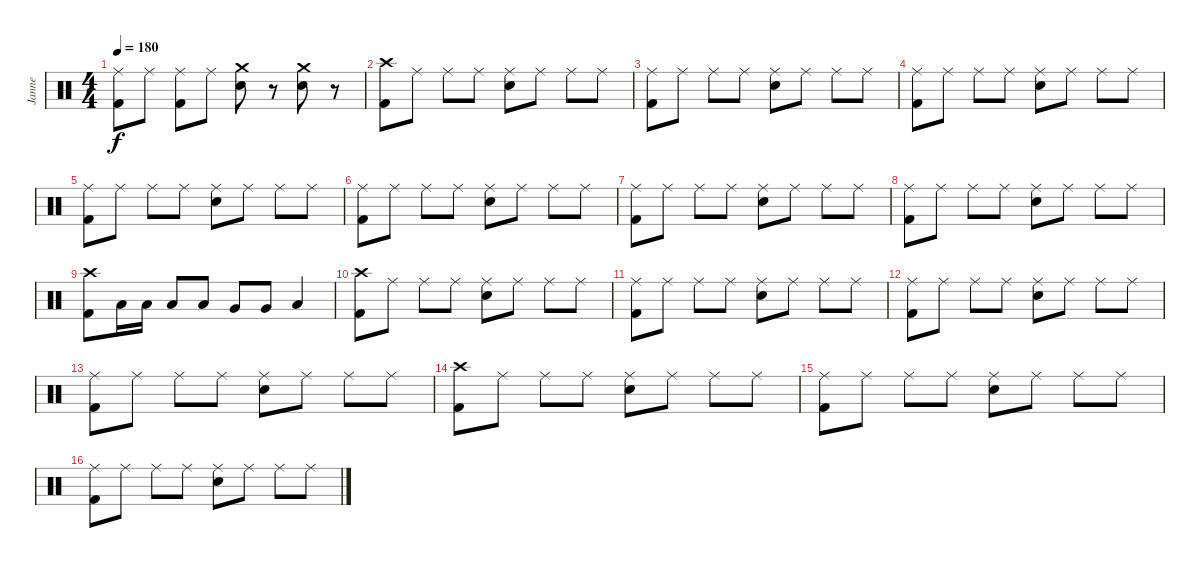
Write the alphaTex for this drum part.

\track ("Janne" "Janne") {instrument percussion}
\staff {score}
\articulation defaults
\ts (4 4)
\tempo 180
\clef neutral
\ks c
("Ride (middle)" "Kick (hit) 2").8{dy f} "Ride (middle)".8 ("Ride (middle)" "Kick (hit) 2").8 "Ride (middle)".8 ("Crash medium (hit)" "Electric Snare (hit)").8 r.8 ("Crash medium (hit)" "Electric Snare (hit)").8 r.8 |
("Crash high (hit)" "Kick (hit) 2").8 "Ride (middle)".8 "Ride (middle)".8 "Ride (middle)".8 ("Ride (middle)" "Electric Snare (hit)").8 "Ride (middle)".8 "Ride (middle)".8 "Ride (middle)".8 |
("Ride (middle)" "Kick (hit) 2").8 "Ride (middle)".8 "Ride (middle)".8 "Ride (middle)".8 ("Ride (middle)" "Electric Snare (hit)").8 "Ride (middle)".8 "Ride (middle)".8 "Ride (middle)".8 |
("Ride (middle)" "Kick (hit) 2").8 "Ride (middle)".8 "Ride (middle)".8 "Ride (middle)".8 ("Ride (middle)" "Electric Snare (hit)").8 "Ride (middle)".8 "Ride (middle)".8 "Ride (middle)".8 |
("Ride (middle)" "Kick (hit) 2").8 "Ride (middle)".8 "Ride (middle)".8 "Ride (middle)".8 ("Ride (middle)" "Electric Snare (hit)").8 "Ride (middle)".8 "Ride (middle)".8 "Ride (middle)".8 |
("Ride (middle)" "Kick (hit) 2").8 "Ride (middle)".8 "Ride (middle)".8 "Ride (middle)".8 ("Ride (middle)" "Electric Snare (hit)").8 "Ride (middle)".8 "Ride (middle)".8 "Ride (middle)".8 |
("Ride (middle)" "Kick (hit) 2").8 "Ride (middle)".8 "Ride (middle)".8 "Ride (middle)".8 ("Ride (middle)" "Electric Snare (hit)").8 "Ride (middle)".8 "Ride (middle)".8 "Ride (middle)".8 |
("Ride (middle)" "Kick (hit) 2").8 "Ride (middle)".8 "Ride (middle)".8 "Ride (middle)".8 ("Ride (middle)" "Electric Snare (hit)").8 "Ride (middle)".8 "Ride (middle)".8 "Ride (middle)".8 |
("Crash high (hit)" "Kick (hit) 2").8 "Low Tom (hit)".16 "Low Tom (hit)".16 "Low Tom (hit)".8 "Low Tom (hit)".8 "Very Low Tom (hit)".8 "Very Low Tom (hit)".8 "Low Floor Tom (hit)".4 |
("Crash high (hit)" "Kick (hit) 2").8 "Ride (middle)".8 "Ride (middle)".8 "Ride (middle)".8 ("Ride (middle)" "Electric Snare (hit)").8 "Ride (middle)".8 "Ride (middle)".8 "Ride (middle)".8 |
("Ride (middle)" "Kick (hit) 2").8 "Ride (middle)".8 "Ride (middle)".8 "Ride (middle)".8 ("Ride (middle)" "Electric Snare (hit)").8 "Ride (middle)".8 "Ride (middle)".8 "Ride (middle)".8 |
("Ride (middle)" "Kick (hit) 2").8 "Ride (middle)".8 "Ride (middle)".8 "Ride (middle)".8 ("Ride (middle)" "Electric Snare (hit)").8 "Ride (middle)".8 "Ride (middle)".8 "Ride (middle)".8 |
("Ride (middle)" "Kick (hit) 2").8 "Ride (middle)".8 "Ride (middle)".8 "Ride (middle)".8 ("Ride (middle)" "Electric Snare (hit)").8 "Ride (middle)".8 "Ride (middle)".8 "Ride (middle)".8 |
("Crash high (hit)" "Kick (hit) 2").8 "Ride (middle)".8 "Ride (middle)".8 "Ride (middle)".8 ("Ride (middle)" "Electric Snare (hit)").8 "Ride (middle)".8 "Ride (middle)".8 "Ride (middle)".8 |
("Ride (middle)" "Kick (hit) 2").8 "Ride (middle)".8 "Ride (middle)".8 "Ride (middle)".8 ("Ride (middle)" "Electric Snare (hit)").8 "Ride (middle)".8 "Ride (middle)".8 "Ride (middle)".8 |
("Ride (middle)" "Kick (hit) 2").8 "Ride (middle)".8 "Ride (middle)".8 "Ride (middle)".8 ("Ride (middle)" "Electric Snare (hit)").8 "Ride (middle)".8 "Ride (middle)".8 "Ride (middle)".8
